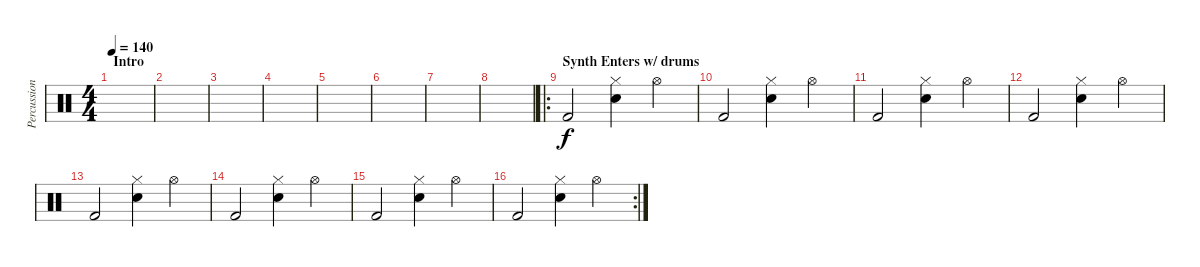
\track ("Percussion" "Percussion") {instrument percussion}
\staff {score}
\articulation defaults
\ts (4 4)
\section ("" "Intro")
\tempo 140
\clef neutral
\ks c
|
|
|
|
|
|
|
|
\ro
\section ("" "Synth Enters w/ drums")
"Kick (hit) 2".2 ("Hi-Hat (closed)" "Snare (hit) 2").4 "Hi-Hat (open)".4 |
"Kick (hit) 2".2 ("Hi-Hat (closed)" "Snare (hit) 2").4 "Hi-Hat (open)".4 |
"Kick (hit) 2".2 ("Hi-Hat (closed)" "Snare (hit) 2").4 "Hi-Hat (open)".4 |
"Kick (hit) 2".2 ("Hi-Hat (closed)" "Snare (hit) 2").4 "Hi-Hat (open)".4 |
"Kick (hit) 2".2 ("Hi-Hat (closed)" "Snare (hit) 2").4 "Hi-Hat (open)".4 |
"Kick (hit) 2".2 ("Hi-Hat (closed)" "Snare (hit) 2").4 "Hi-Hat (open)".4 |
"Kick (hit) 2".2 ("Hi-Hat (closed)" "Snare (hit) 2").4 "Hi-Hat (open)".4 |
\rc 2 "Kick (hit) 2".2
("Hi-Hat (closed)" "Snare (hit) 2").4 "Hi-Hat (open)".4
